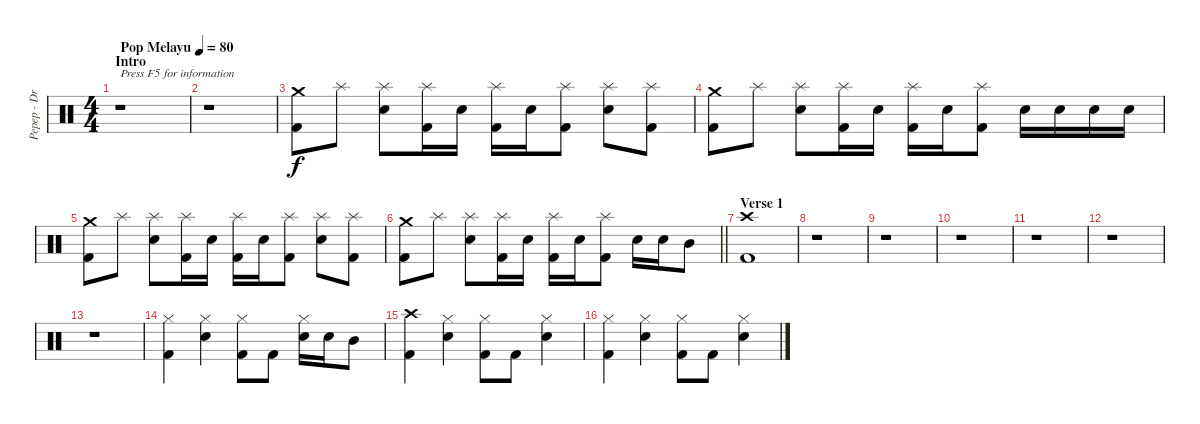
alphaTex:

\track ("Pepep - Drum" "Pepep - Dr") {instrument percussion}
\staff {score}
\articulation defaults
\ts (4 4)
\section ("" "Intro")
\tempo (80 "Pop Melayu")
\clef neutral
\ks c
r.1{txt "Press F5 for information" dy f} |
r.1 |
("Crash medium (hit)" "Kick (hit) 2").8 "Splash (hit)".8 ("Splash (hit)" "Electric Snare (hit)").8 ("Splash (hit)" "Kick (hit) 2").16 "Electric Snare (hit)".16 ("Splash (hit)" "Kick (hit) 2").16 "Electric Snare (hit)".16 ("Splash (hit)" "Kick (hit) 2").8 ("Splash (hit)" "Electric Snare (hit)").8 ("Splash (hit)" "Kick (hit) 2").8 |
("Crash medium (hit)" "Kick (hit) 2").8 "Splash (hit)".8 ("Splash (hit)" "Electric Snare (hit)").8 ("Splash (hit)" "Kick (hit) 2").16 "Electric Snare (hit)".16 ("Splash (hit)" "Kick (hit) 2").16 "Electric Snare (hit)".16 ("Splash (hit)" "Kick (hit) 2").8 "Electric Snare (hit)".16 "Electric Snare (hit)".16 "Electric Snare (hit)".16 "Electric Snare (hit)".16 |
("Crash medium (hit)" "Kick (hit) 2").8 "Splash (hit)".8 ("Splash (hit)" "Electric Snare (hit)").8 ("Splash (hit)" "Kick (hit) 2").16 "Electric Snare (hit)".16 ("Splash (hit)" "Kick (hit) 2").16 "Electric Snare (hit)".16 ("Splash (hit)" "Kick (hit) 2").8 ("Splash (hit)" "Electric Snare (hit)").8 ("Splash (hit)" "Kick (hit) 2").8 |
\barLineRight lightlight
("Crash medium (hit)" "Kick (hit) 2").8 "Splash (hit)".8 ("Splash (hit)" "Electric Snare (hit)").8 ("Splash (hit)" "Kick (hit) 2").16 "Electric Snare (hit)".16 ("Splash (hit)" "Kick (hit) 2").16 "Electric Snare (hit)".16 ("Splash (hit)" "Kick (hit) 2").8 "Electric Snare (hit)".16 "Electric Snare (hit)".16 "Mid Tom (hit)".8 |
\section ("" "Verse 1")
("Crash high (hit)" "Kick (hit) 2").1 |
r.1 |
r.1 |
r.1 |
r.1 |
r.1 |
r.1 |
("Hi-Hat (closed)" "Kick (hit) 2").4 ("Hi-Hat (closed)" "Electric Snare (hit)").4 ("Hi-Hat (closed)" "Kick (hit) 2").8 "Kick (hit) 2".8 ("Hi-Hat (closed)" "Electric Snare (hit)").16 "Electric Snare (hit)".16 "Mid Tom (hit)".8 |
("Crash high (hit)" "Kick (hit) 2").4 ("Hi-Hat (closed)" "Electric Snare (hit)").4 ("Hi-Hat (closed)" "Kick (hit) 2").8 "Kick (hit) 2".8 ("Hi-Hat (closed)" "Electric Snare (hit)").4 |
("Hi-Hat (closed)" "Kick (hit) 2").4 ("Hi-Hat (closed)" "Electric Snare (hit)").4 ("Hi-Hat (closed)" "Kick (hit) 2").8 "Kick (hit) 2".8 ("Hi-Hat (closed)" "Electric Snare (hit)").4
